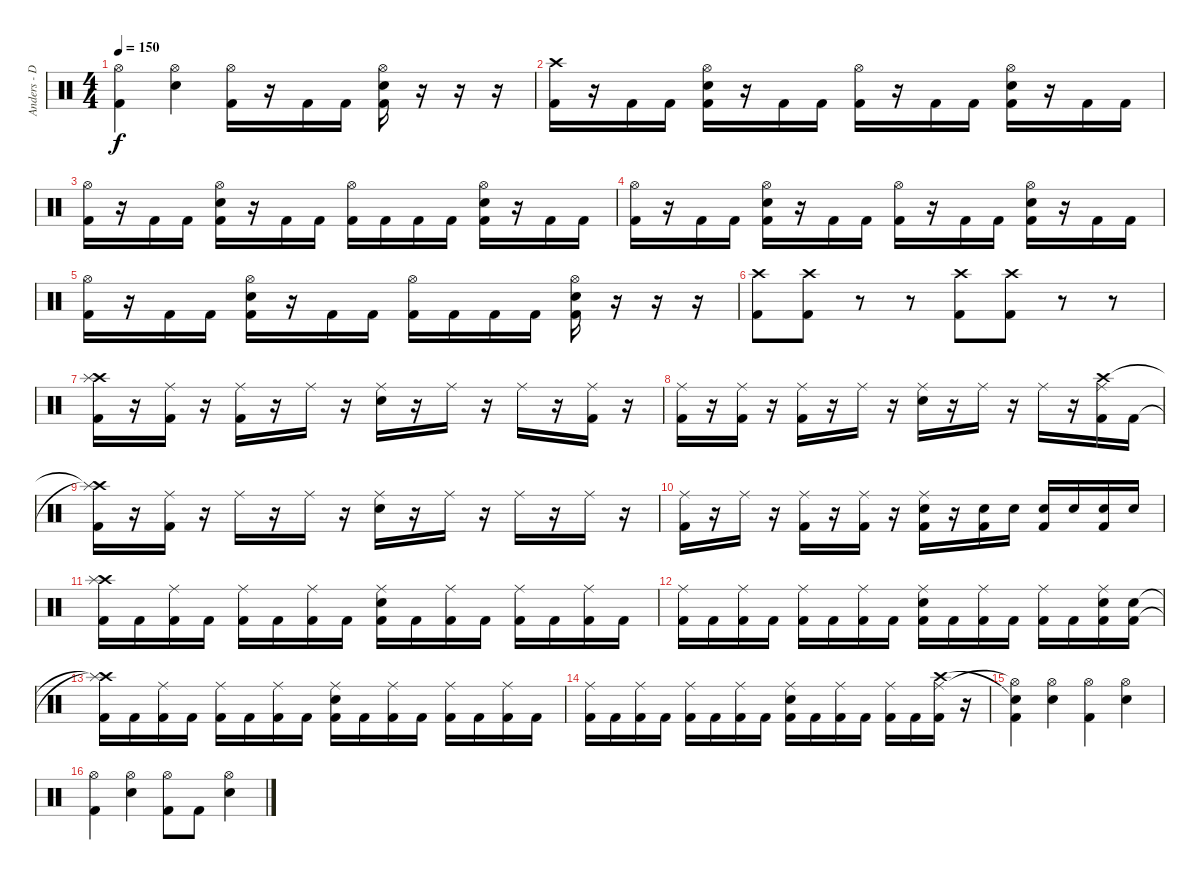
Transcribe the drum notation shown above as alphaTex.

\track ("Anders - Drums" "Anders - D") {instrument percussion}
\staff {score}
\articulation defaults
\ts (4 4)
\tempo 150
\clef neutral
\ks c
("Hi-Hat (open)" "Kick (hit) 2").4{dy f} ("Hi-Hat (open)" "Snare (hit) 2").4 ("Hi-Hat (open)" "Kick (hit) 2").16 r.16 "Kick (hit) 2".16 "Kick (hit) 2".16 ("Hi-Hat (open)" "Snare (hit) 2" "Kick (hit) 2").16 r.16 r.16 r.16 |
("Crash high (hit)" "Kick (hit) 2").16 r.16 "Kick (hit) 2".16 "Kick (hit) 2".16 ("Hi-Hat (open)" "Snare (hit) 2" "Kick (hit) 2").16 r.16 "Kick (hit) 2".16 "Kick (hit) 2".16 ("Hi-Hat (open)" "Kick (hit) 2").16 r.16 "Kick (hit) 2".16 "Kick (hit) 2".16 ("Hi-Hat (open)" "Snare (hit) 2" "Kick (hit) 2").16 r.16 "Kick (hit) 2".16 "Kick (hit) 2".16 |
("Hi-Hat (open)" "Kick (hit) 2").16 r.16 "Kick (hit) 2".16 "Kick (hit) 2".16 ("Hi-Hat (open)" "Snare (hit) 2" "Kick (hit) 2").16 r.16 "Kick (hit) 2".16 "Kick (hit) 2".16 ("Hi-Hat (open)" "Kick (hit) 2").16 "Kick (hit) 2".16 "Kick (hit) 2".16 "Kick (hit) 2".16 ("Hi-Hat (open)" "Snare (hit) 2" "Kick (hit) 2").16 r.16 "Kick (hit) 2".16 "Kick (hit) 2".16 |
("Hi-Hat (open)" "Kick (hit) 2").16 r.16 "Kick (hit) 2".16 "Kick (hit) 2".16 ("Hi-Hat (open)" "Snare (hit) 2" "Kick (hit) 2").16 r.16 "Kick (hit) 2".16 "Kick (hit) 2".16 ("Hi-Hat (open)" "Kick (hit) 2").16 r.16 "Kick (hit) 2".16 "Kick (hit) 2".16 ("Hi-Hat (open)" "Snare (hit) 2" "Kick (hit) 2").16 r.16 "Kick (hit) 2".16 "Kick (hit) 2".16 |
("Hi-Hat (open)" "Kick (hit) 2").16 r.16 "Kick (hit) 2".16 "Kick (hit) 2".16 ("Hi-Hat (open)" "Snare (hit) 2" "Kick (hit) 2").16 r.16 "Kick (hit) 2".16 "Kick (hit) 2".16 ("Hi-Hat (open)" "Kick (hit) 2").16 "Kick (hit) 2".16 "Kick (hit) 2".16 "Kick (hit) 2".16 ("Hi-Hat (open)" "Snare (hit) 2" "Kick (hit) 2").16 r.16 r.16 r.16 |
("Crash high (hit)" "Kick (hit) 2").8 ("Crash high (hit)" "Kick (hit) 2").8 r.8 r.8 ("Crash high (hit)" "Kick (hit) 2").8 ("Crash high (hit)" "Kick (hit) 2").8 r.8 r.8 |
("Crash high (hit)" "Splash (hit)" "Kick (hit) 2").16 r.16 ("Ride (middle)" "Kick (hit) 2").16 r.16 ("Ride (middle)" "Kick (hit) 2").16 r.16 "Ride (middle)".16 r.16 ("Ride (middle)" "Snare (hit) 2").16 r.16 "Ride (middle)".16 r.16 "Ride (middle)".16 r.16 ("Ride (middle)" "Kick (hit) 2").16 r.16 |
("Ride (middle)" "Kick (hit) 2").16 r.16 ("Ride (middle)" "Kick (hit) 2").16 r.16 ("Ride (middle)" "Kick (hit) 2").16 r.16 "Ride (middle)".16 r.16 ("Ride (middle)" "Snare (hit) 2").16 r.16 "Ride (middle)".16 r.16 "Ride (middle)".16 r.16 ("Ride (middle)" "Crash high (hit)" "Kick (hit) 2").16 "Kick (hit) 2".16 |
("Crash high (hit)"{t} "Splash (hit)"{t} "Kick (hit) 2").16 r.16 ("Ride (middle)" "Kick (hit) 2").16 r.16 "Ride (middle)".16 r.16 "Ride (middle)".16 r.16 ("Ride (middle)" "Snare (hit) 2").16 r.16 "Ride (middle)".16 r.16 "Ride (middle)".16 r.16 "Ride (middle)".16 r.16 |
("Ride (middle)" "Kick (hit) 2").16 r.16 "Ride (middle)".16 r.16 ("Ride (middle)" "Kick (hit) 2").16 r.16 ("Ride (middle)" "Kick (hit) 2").16 r.16 ("Ride (middle)" "Snare (hit) 2" "Kick (hit) 2").16 r.16 ("Snare (hit) 2" "Kick (hit) 2").16 "Snare (hit) 2".16 ("Snare (hit) 2" "Kick (hit) 2").16 "Snare (hit) 2".16 ("Snare (hit) 2" "Kick (hit) 2").16 "Snare (hit) 2".16 |
("Crash high (hit)" "Splash (hit)" "Kick (hit) 2").16 "Kick (hit) 2".16 ("Ride (middle)" "Kick (hit) 2").16 "Kick (hit) 2".16 ("Ride (middle)" "Kick (hit) 2").16 "Kick (hit) 2".16 ("Ride (middle)" "Kick (hit) 2").16 "Kick (hit) 2".16 ("Ride (middle)" "Snare (hit) 2" "Kick (hit) 2").16 "Kick (hit) 2".16 ("Ride (middle)" "Kick (hit) 2").16 "Kick (hit) 2".16 ("Ride (middle)" "Kick (hit) 2").16 "Kick (hit) 2".16 ("Ride (middle)" "Kick (hit) 2").16 "Kick (hit) 2".16 |
("Ride (middle)" "Kick (hit) 2").16 "Kick (hit) 2".16 ("Ride (middle)" "Kick (hit) 2").16 "Kick (hit) 2".16 ("Ride (middle)" "Kick (hit) 2").16 "Kick (hit) 2".16 ("Ride (middle)" "Kick (hit) 2").16 "Kick (hit) 2".16 ("Ride (middle)" "Snare (hit) 2" "Kick (hit) 2").16 "Kick (hit) 2".16 ("Ride (middle)" "Kick (hit) 2").16 "Kick (hit) 2".16 ("Ride (middle)" "Kick (hit) 2").16 "Kick (hit) 2".16 ("Ride (middle)" "Snare (hit) 2" "Kick (hit) 2").16 ("Snare (hit) 2" "Kick (hit) 2").16 |
("Crash high (hit)"{t} "Splash (hit)"{t} "Kick (hit) 2").16 "Kick (hit) 2".16 ("Ride (middle)" "Kick (hit) 2").16 "Kick (hit) 2".16 ("Ride (middle)" "Kick (hit) 2").16 "Kick (hit) 2".16 ("Ride (middle)" "Kick (hit) 2").16 "Kick (hit) 2".16 ("Ride (middle)" "Snare (hit) 2" "Kick (hit) 2").16 "Kick (hit) 2".16 ("Ride (middle)" "Kick (hit) 2").16 "Kick (hit) 2".16 ("Ride (middle)" "Kick (hit) 2").16 "Kick (hit) 2".16 ("Ride (middle)" "Kick (hit) 2").16 "Kick (hit) 2".16 |
("Ride (middle)" "Kick (hit) 2").16 "Kick (hit) 2".16 ("Ride (middle)" "Kick (hit) 2").16 "Kick (hit) 2".16 ("Ride (middle)" "Kick (hit) 2").16 "Kick (hit) 2".16 ("Ride (middle)" "Kick (hit) 2").16 "Kick (hit) 2".16 ("Ride (middle)" "Snare (hit) 2" "Kick (hit) 2").16 "Kick (hit) 2".16 ("Ride (middle)" "Kick (hit) 2").16 "Kick (hit) 2".16 ("Ride (middle)" "Kick (hit) 2").16 "Kick (hit) 2".16 ("Ride (middle)" "Crash high (hit)" "Kick (hit) 2").16 r.16 |
("Hi-Hat (open)"{t} "Snare (hit)"{t} "Kick (hit) 2").4 ("Hi-Hat (open)" "Snare (hit) 2").4 ("Hi-Hat (open)" "Kick (hit) 2").4 ("Hi-Hat (open)" "Snare (hit) 2").4 |
("Hi-Hat (open)" "Kick (hit) 2").4 ("Hi-Hat (open)" "Snare (hit) 2").4 ("Hi-Hat (open)" "Kick (hit) 2").8 "Kick (hit) 2".8 ("Hi-Hat (open)" "Snare (hit) 2").4
